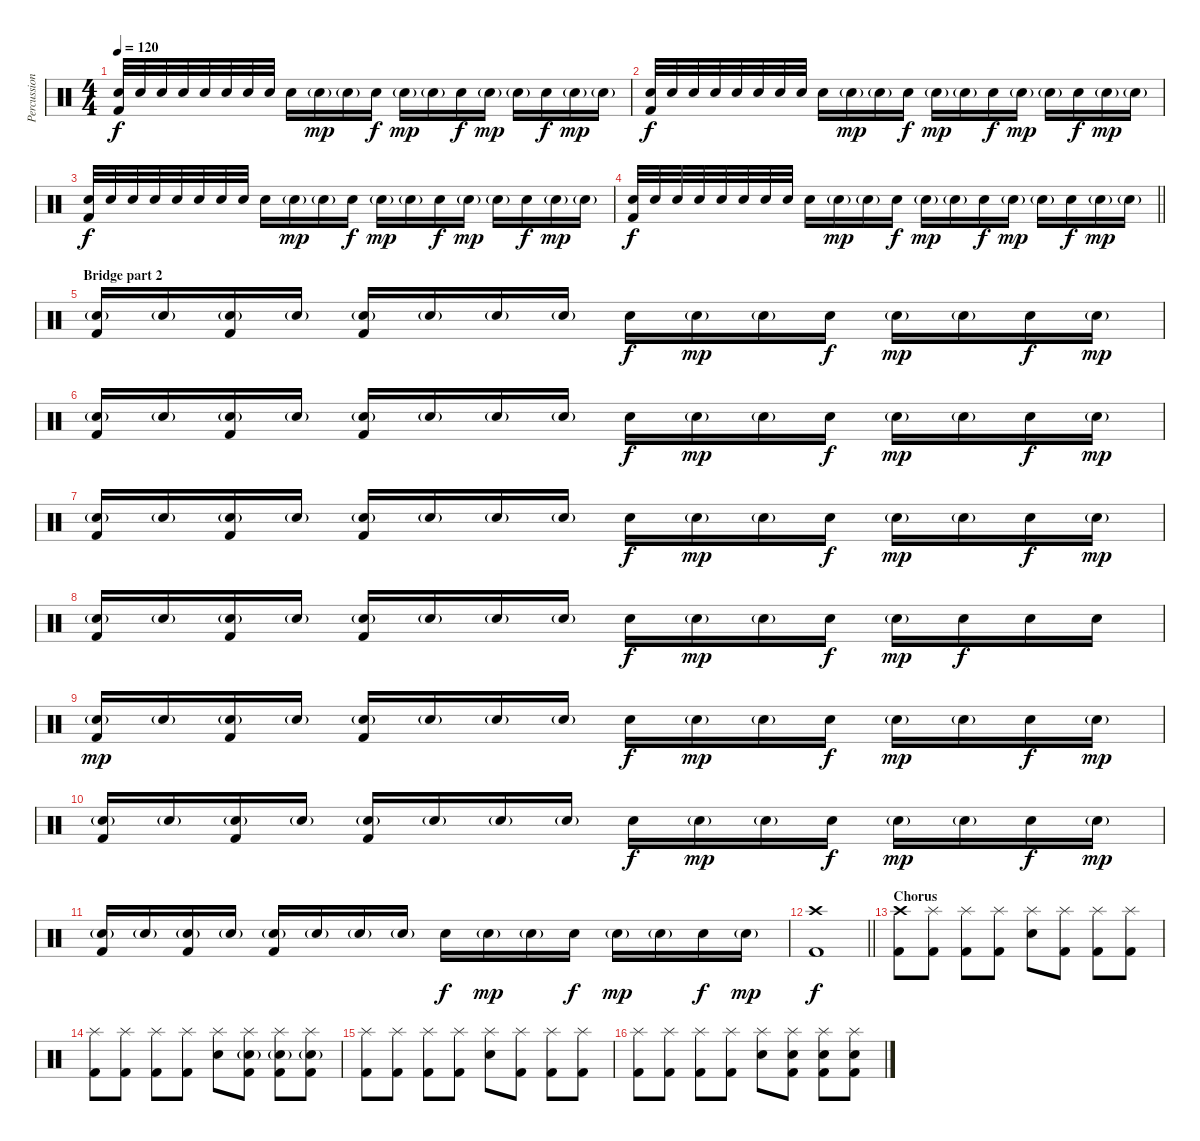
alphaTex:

\track ("Percussion" "Percussion") {instrument percussion}
\staff {score}
\articulation defaults
\ts (4 4)
\tempo 120
\clef neutral
\ks c
("Electric Snare (hit)" "Kick (hit) 2").32{dy f} "Electric Snare (hit)".32 "Electric Snare (hit)".32 "Electric Snare (hit)".32 "Electric Snare (hit)".32 "Electric Snare (hit)".32 "Electric Snare (hit)".32 "Electric Snare (hit)".32 "Electric Snare (hit)".16 "Electric Snare (hit)"{g}.16{dy mp} "Electric Snare (hit)"{g}.16 "Electric Snare (hit)".16{dy f} "Electric Snare (hit)"{g}.16{dy mp} "Electric Snare (hit)"{g}.16 "Electric Snare (hit)".16{dy f} "Electric Snare (hit)"{g}.16{dy mp} "Electric Snare (hit)"{g}.16 "Electric Snare (hit)".16{dy f} "Electric Snare (hit)"{g}.16{dy mp} "Electric Snare (hit)"{g}.16 |
("Electric Snare (hit)" "Kick (hit) 2").32{dy f} "Electric Snare (hit)".32 "Electric Snare (hit)".32 "Electric Snare (hit)".32 "Electric Snare (hit)".32 "Electric Snare (hit)".32 "Electric Snare (hit)".32 "Electric Snare (hit)".32 "Electric Snare (hit)".16 "Electric Snare (hit)"{g}.16{dy mp} "Electric Snare (hit)"{g}.16 "Electric Snare (hit)".16{dy f} "Electric Snare (hit)"{g}.16{dy mp} "Electric Snare (hit)"{g}.16 "Electric Snare (hit)".16{dy f} "Electric Snare (hit)"{g}.16{dy mp} "Electric Snare (hit)"{g}.16 "Electric Snare (hit)".16{dy f} "Electric Snare (hit)"{g}.16{dy mp} "Electric Snare (hit)"{g}.16 |
("Electric Snare (hit)" "Kick (hit) 2").32{dy f} "Electric Snare (hit)".32 "Electric Snare (hit)".32 "Electric Snare (hit)".32 "Electric Snare (hit)".32 "Electric Snare (hit)".32 "Electric Snare (hit)".32 "Electric Snare (hit)".32 "Electric Snare (hit)".16 "Electric Snare (hit)"{g}.16{dy mp} "Electric Snare (hit)"{g}.16 "Electric Snare (hit)".16{dy f} "Electric Snare (hit)"{g}.16{dy mp} "Electric Snare (hit)"{g}.16 "Electric Snare (hit)".16{dy f} "Electric Snare (hit)"{g}.16{dy mp} "Electric Snare (hit)"{g}.16 "Electric Snare (hit)".16{dy f} "Electric Snare (hit)"{g}.16{dy mp} "Electric Snare (hit)"{g}.16 |
\barLineRight lightlight
("Electric Snare (hit)" "Kick (hit) 2").32{dy f} "Electric Snare (hit)".32 "Electric Snare (hit)".32 "Electric Snare (hit)".32 "Electric Snare (hit)".32 "Electric Snare (hit)".32 "Electric Snare (hit)".32 "Electric Snare (hit)".32 "Electric Snare (hit)".16 "Electric Snare (hit)"{g}.16{dy mp} "Electric Snare (hit)"{g}.16 "Electric Snare (hit)".16{dy f} "Electric Snare (hit)"{g}.16{dy mp} "Electric Snare (hit)"{g}.16 "Electric Snare (hit)".16{dy f} "Electric Snare (hit)"{g}.16{dy mp} "Electric Snare (hit)"{g}.16 "Electric Snare (hit)".16{dy f} "Electric Snare (hit)"{g}.16{dy mp} "Electric Snare (hit)"{g}.16 |
\section ("" "Bridge part 2")
("Electric Snare (hit)"{g} "Kick (hit) 2").16 "Electric Snare (hit)"{g}.16 ("Electric Snare (hit)"{g} "Kick (hit) 2").16 "Electric Snare (hit)"{g}.16 ("Electric Snare (hit)"{g} "Kick (hit) 2").16 "Electric Snare (hit)"{g}.16 "Electric Snare (hit)"{g}.16 "Electric Snare (hit)"{g}.16 "Electric Snare (hit)".16{dy f} "Electric Snare (hit)"{g}.16{dy mp} "Electric Snare (hit)"{g}.16 "Electric Snare (hit)".16{dy f} "Electric Snare (hit)"{g}.16{dy mp} "Electric Snare (hit)"{g}.16 "Electric Snare (hit)".16{dy f} "Electric Snare (hit)"{g}.16{dy mp} |
("Electric Snare (hit)"{g} "Kick (hit) 2").16 "Electric Snare (hit)"{g}.16 ("Electric Snare (hit)"{g} "Kick (hit) 2").16 "Electric Snare (hit)"{g}.16 ("Electric Snare (hit)"{g} "Kick (hit) 2").16 "Electric Snare (hit)"{g}.16 "Electric Snare (hit)"{g}.16 "Electric Snare (hit)"{g}.16 "Electric Snare (hit)".16{dy f} "Electric Snare (hit)"{g}.16{dy mp} "Electric Snare (hit)"{g}.16 "Electric Snare (hit)".16{dy f} "Electric Snare (hit)"{g}.16{dy mp} "Electric Snare (hit)"{g}.16 "Electric Snare (hit)".16{dy f} "Electric Snare (hit)"{g}.16{dy mp} |
("Electric Snare (hit)"{g} "Kick (hit) 2").16 "Electric Snare (hit)"{g}.16 ("Electric Snare (hit)"{g} "Kick (hit) 2").16 "Electric Snare (hit)"{g}.16 ("Electric Snare (hit)"{g} "Kick (hit) 2").16 "Electric Snare (hit)"{g}.16 "Electric Snare (hit)"{g}.16 "Electric Snare (hit)"{g}.16 "Electric Snare (hit)".16{dy f} "Electric Snare (hit)"{g}.16{dy mp} "Electric Snare (hit)"{g}.16 "Electric Snare (hit)".16{dy f} "Electric Snare (hit)"{g}.16{dy mp} "Electric Snare (hit)"{g}.16 "Electric Snare (hit)".16{dy f} "Electric Snare (hit)"{g}.16{dy mp} |
("Electric Snare (hit)"{g} "Kick (hit) 2").16 "Electric Snare (hit)"{g}.16 ("Electric Snare (hit)"{g} "Kick (hit) 2").16 "Electric Snare (hit)"{g}.16 ("Electric Snare (hit)"{g} "Kick (hit) 2").16 "Electric Snare (hit)"{g}.16 "Electric Snare (hit)"{g}.16 "Electric Snare (hit)"{g}.16 "Electric Snare (hit)".16{dy f} "Electric Snare (hit)"{g}.16{dy mp} "Electric Snare (hit)"{g}.16 "Electric Snare (hit)".16{dy f} "Electric Snare (hit)"{g}.16{dy mp} "Electric Snare (hit)".16{dy f} "Electric Snare (hit)".16 "Electric Snare (hit)".16 |
("Electric Snare (hit)"{g} "Kick (hit) 2").16{dy mp} "Electric Snare (hit)"{g}.16 ("Electric Snare (hit)"{g} "Kick (hit) 2").16 "Electric Snare (hit)"{g}.16 ("Electric Snare (hit)"{g} "Kick (hit) 2").16 "Electric Snare (hit)"{g}.16 "Electric Snare (hit)"{g}.16 "Electric Snare (hit)"{g}.16 "Electric Snare (hit)".16{dy f} "Electric Snare (hit)"{g}.16{dy mp} "Electric Snare (hit)"{g}.16 "Electric Snare (hit)".16{dy f} "Electric Snare (hit)"{g}.16{dy mp} "Electric Snare (hit)"{g}.16 "Electric Snare (hit)".16{dy f} "Electric Snare (hit)"{g}.16{dy mp} |
("Electric Snare (hit)"{g} "Kick (hit) 2").16 "Electric Snare (hit)"{g}.16 ("Electric Snare (hit)"{g} "Kick (hit) 2").16 "Electric Snare (hit)"{g}.16 ("Electric Snare (hit)"{g} "Kick (hit) 2").16 "Electric Snare (hit)"{g}.16 "Electric Snare (hit)"{g}.16 "Electric Snare (hit)"{g}.16 "Electric Snare (hit)".16{dy f} "Electric Snare (hit)"{g}.16{dy mp} "Electric Snare (hit)"{g}.16 "Electric Snare (hit)".16{dy f} "Electric Snare (hit)"{g}.16{dy mp} "Electric Snare (hit)"{g}.16 "Electric Snare (hit)".16{dy f} "Electric Snare (hit)"{g}.16{dy mp} |
("Electric Snare (hit)"{g} "Kick (hit) 2").16 "Electric Snare (hit)"{g}.16 ("Electric Snare (hit)"{g} "Kick (hit) 2").16 "Electric Snare (hit)"{g}.16 ("Electric Snare (hit)"{g} "Kick (hit) 2").16 "Electric Snare (hit)"{g}.16 "Electric Snare (hit)"{g}.16 "Electric Snare (hit)"{g}.16 "Electric Snare (hit)".16{dy f} "Electric Snare (hit)"{g}.16{dy mp} "Electric Snare (hit)"{g}.16 "Electric Snare (hit)".16{dy f} "Electric Snare (hit)"{g}.16{dy mp} "Electric Snare (hit)"{g}.16 "Electric Snare (hit)".16{dy f} "Electric Snare (hit)"{g}.16{dy mp} |
\barLineRight lightlight
("Crash high (hit)" "Kick (hit) 2").1{dy f} |
\section ("" "Chorus")
("Crash high (hit)" "Kick (hit) 2").8 ("Splash (hit)" "Kick (hit) 2").8 ("Splash (hit)" "Kick (hit) 2").8 ("Splash (hit)" "Kick (hit) 2").8 ("Splash (hit)" "Electric Snare (hit)").8 ("Splash (hit)" "Kick (hit) 2").8 ("Splash (hit)" "Kick (hit) 2").8 ("Splash (hit)" "Kick (hit) 2").8 |
("Splash (hit)" "Kick (hit) 2").8 ("Splash (hit)" "Kick (hit) 2").8 ("Splash (hit)" "Kick (hit) 2").8 ("Splash (hit)" "Kick (hit) 2").8 ("Splash (hit)" "Electric Snare (hit)").8 ("Splash (hit)" "Electric Snare (hit)"{g} "Kick (hit) 2").8 ("Splash (hit)" "Electric Snare (hit)"{g} "Kick (hit) 2").8 ("Splash (hit)" "Electric Snare (hit)"{g} "Kick (hit) 2").8 |
("Splash (hit)" "Kick (hit) 2").8 ("Splash (hit)" "Kick (hit) 2").8 ("Splash (hit)" "Kick (hit) 2").8 ("Splash (hit)" "Kick (hit) 2").8 ("Splash (hit)" "Electric Snare (hit)").8 ("Splash (hit)" "Kick (hit) 2").8 ("Splash (hit)" "Kick (hit) 2").8 ("Splash (hit)" "Kick (hit) 2").8 |
("Splash (hit)" "Kick (hit) 2").8 ("Splash (hit)" "Kick (hit) 2").8 ("Splash (hit)" "Kick (hit) 2").8 ("Splash (hit)" "Kick (hit) 2").8 ("Splash (hit)" "Electric Snare (hit)").8 ("Splash (hit)" "Electric Snare (hit)" "Kick (hit) 2").8 ("Splash (hit)" "Electric Snare (hit)" "Kick (hit) 2").8 ("Splash (hit)" "Electric Snare (hit)" "Kick (hit) 2").8
